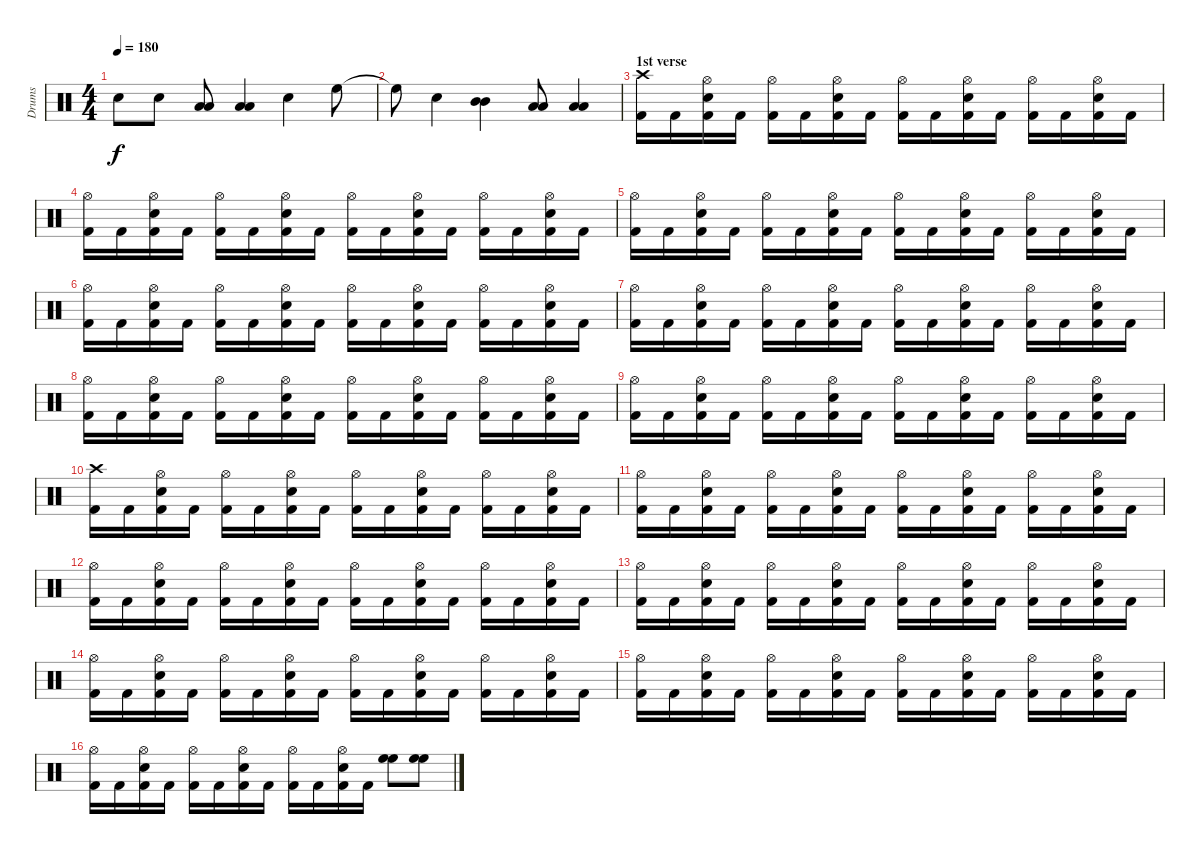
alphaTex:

\track ("Drums" "Drums") {instrument percussion}
\staff {score}
\articulation defaults
\ts (4 4)
\tempo 180
\clef neutral
\ks c "Snare (hit) 2".8{dy f} "Snare (hit) 2".8
("Low Tom (hit)" "Low Tom (hit)").8 ("Low Floor Tom (hit)" "Low Floor Tom (hit)").4 "Snare (hit) 2".4 "High Floor Tom (hit)".8 |
"High Floor Tom (hit)"{t}.8 "Snare (hit) 2".4 ("Mid Tom (hit)" "Mid Tom (hit)").4 ("Low Tom (hit)" "Low Tom (hit)").8 ("Low Floor Tom (hit)" "Low Floor Tom (hit)").4 |
\section ("" "1st verse")
("Crash high (hit)" "Kick (hit) 2").16 "Kick (hit) 2".16 ("Hi-Hat (open)" "Snare (hit) 2" "Kick (hit) 2").16 "Kick (hit) 2".16 ("Hi-Hat (open)" "Kick (hit) 2").16 "Kick (hit) 2".16 ("Hi-Hat (open)" "Snare (hit) 2" "Kick (hit) 2").16 "Kick (hit) 2".16 ("Hi-Hat (open)" "Kick (hit) 2").16 "Kick (hit) 2".16 ("Hi-Hat (open)" "Snare (hit) 2" "Kick (hit) 2").16 "Kick (hit) 2".16 ("Hi-Hat (open)" "Kick (hit) 2").16 "Kick (hit) 2".16 ("Hi-Hat (open)" "Snare (hit) 2" "Kick (hit) 2").16 "Kick (hit) 2".16 |
("Hi-Hat (open)" "Kick (hit) 2").16 "Kick (hit) 2".16 ("Hi-Hat (open)" "Snare (hit) 2" "Kick (hit) 2").16 "Kick (hit) 2".16 ("Hi-Hat (open)" "Kick (hit) 2").16 "Kick (hit) 2".16 ("Hi-Hat (open)" "Snare (hit) 2" "Kick (hit) 2").16 "Kick (hit) 2".16 ("Hi-Hat (open)" "Kick (hit) 2").16 "Kick (hit) 2".16 ("Hi-Hat (open)" "Snare (hit) 2" "Kick (hit) 2").16 "Kick (hit) 2".16 ("Hi-Hat (open)" "Kick (hit) 2").16 "Kick (hit) 2".16 ("Hi-Hat (open)" "Snare (hit) 2" "Kick (hit) 2").16 "Kick (hit) 2".16 |
("Hi-Hat (open)" "Kick (hit) 2").16 "Kick (hit) 2".16 ("Hi-Hat (open)" "Snare (hit) 2" "Kick (hit) 2").16 "Kick (hit) 2".16 ("Hi-Hat (open)" "Kick (hit) 2").16 "Kick (hit) 2".16 ("Hi-Hat (open)" "Snare (hit) 2" "Kick (hit) 2").16 "Kick (hit) 2".16 ("Hi-Hat (open)" "Kick (hit) 2").16 "Kick (hit) 2".16 ("Hi-Hat (open)" "Snare (hit) 2" "Kick (hit) 2").16 "Kick (hit) 2".16 ("Hi-Hat (open)" "Kick (hit) 2").16 "Kick (hit) 2".16 ("Hi-Hat (open)" "Snare (hit) 2" "Kick (hit) 2").16 "Kick (hit) 2".16 |
("Hi-Hat (open)" "Kick (hit) 2").16 "Kick (hit) 2".16 ("Hi-Hat (open)" "Snare (hit) 2" "Kick (hit) 2").16 "Kick (hit) 2".16 ("Hi-Hat (open)" "Kick (hit) 2").16 "Kick (hit) 2".16 ("Hi-Hat (open)" "Snare (hit) 2" "Kick (hit) 2").16 "Kick (hit) 2".16 ("Hi-Hat (open)" "Kick (hit) 2").16 "Kick (hit) 2".16 ("Hi-Hat (open)" "Snare (hit) 2" "Kick (hit) 2").16 "Kick (hit) 2".16 ("Hi-Hat (open)" "Kick (hit) 2").16 "Kick (hit) 2".16 ("Hi-Hat (open)" "Snare (hit) 2" "Kick (hit) 2").16 "Kick (hit) 2".16 |
("Hi-Hat (open)" "Kick (hit) 2").16 "Kick (hit) 2".16 ("Hi-Hat (open)" "Snare (hit) 2" "Kick (hit) 2").16 "Kick (hit) 2".16 ("Hi-Hat (open)" "Kick (hit) 2").16 "Kick (hit) 2".16 ("Hi-Hat (open)" "Snare (hit) 2" "Kick (hit) 2").16 "Kick (hit) 2".16 ("Hi-Hat (open)" "Kick (hit) 2").16 "Kick (hit) 2".16 ("Hi-Hat (open)" "Snare (hit) 2" "Kick (hit) 2").16 "Kick (hit) 2".16 ("Hi-Hat (open)" "Kick (hit) 2").16 "Kick (hit) 2".16 ("Hi-Hat (open)" "Snare (hit) 2" "Kick (hit) 2").16 "Kick (hit) 2".16 |
("Hi-Hat (open)" "Kick (hit) 2").16 "Kick (hit) 2".16 ("Hi-Hat (open)" "Snare (hit) 2" "Kick (hit) 2").16 "Kick (hit) 2".16 ("Hi-Hat (open)" "Kick (hit) 2").16 "Kick (hit) 2".16 ("Hi-Hat (open)" "Snare (hit) 2" "Kick (hit) 2").16 "Kick (hit) 2".16 ("Hi-Hat (open)" "Kick (hit) 2").16 "Kick (hit) 2".16 ("Hi-Hat (open)" "Snare (hit) 2" "Kick (hit) 2").16 "Kick (hit) 2".16 ("Hi-Hat (open)" "Kick (hit) 2").16 "Kick (hit) 2".16 ("Hi-Hat (open)" "Snare (hit) 2" "Kick (hit) 2").16 "Kick (hit) 2".16 |
("Hi-Hat (open)" "Kick (hit) 2").16 "Kick (hit) 2".16 ("Hi-Hat (open)" "Snare (hit) 2" "Kick (hit) 2").16 "Kick (hit) 2".16 ("Hi-Hat (open)" "Kick (hit) 2").16 "Kick (hit) 2".16 ("Hi-Hat (open)" "Snare (hit) 2" "Kick (hit) 2").16 "Kick (hit) 2".16 ("Hi-Hat (open)" "Kick (hit) 2").16 "Kick (hit) 2".16 ("Hi-Hat (open)" "Snare (hit) 2" "Kick (hit) 2").16 "Kick (hit) 2".16 ("Hi-Hat (open)" "Kick (hit) 2").16 "Kick (hit) 2".16 ("Hi-Hat (open)" "Snare (hit) 2" "Kick (hit) 2").16 "Kick (hit) 2".16 |
("Crash high (hit)" "Kick (hit) 2").16 "Kick (hit) 2".16 ("Hi-Hat (open)" "Snare (hit) 2" "Kick (hit) 2").16 "Kick (hit) 2".16 ("Hi-Hat (open)" "Kick (hit) 2").16 "Kick (hit) 2".16 ("Hi-Hat (open)" "Snare (hit) 2" "Kick (hit) 2").16 "Kick (hit) 2".16 ("Hi-Hat (open)" "Kick (hit) 2").16 "Kick (hit) 2".16 ("Hi-Hat (open)" "Snare (hit) 2" "Kick (hit) 2").16 "Kick (hit) 2".16 ("Hi-Hat (open)" "Kick (hit) 2").16 "Kick (hit) 2".16 ("Hi-Hat (open)" "Snare (hit) 2" "Kick (hit) 2").16 "Kick (hit) 2".16 |
("Hi-Hat (open)" "Kick (hit) 2").16 "Kick (hit) 2".16 ("Hi-Hat (open)" "Snare (hit) 2" "Kick (hit) 2").16 "Kick (hit) 2".16 ("Hi-Hat (open)" "Kick (hit) 2").16 "Kick (hit) 2".16 ("Hi-Hat (open)" "Snare (hit) 2" "Kick (hit) 2").16 "Kick (hit) 2".16 ("Hi-Hat (open)" "Kick (hit) 2").16 "Kick (hit) 2".16 ("Hi-Hat (open)" "Snare (hit) 2" "Kick (hit) 2").16 "Kick (hit) 2".16 ("Hi-Hat (open)" "Kick (hit) 2").16 "Kick (hit) 2".16 ("Hi-Hat (open)" "Snare (hit) 2" "Kick (hit) 2").16 "Kick (hit) 2".16 |
("Hi-Hat (open)" "Kick (hit) 2").16 "Kick (hit) 2".16 ("Hi-Hat (open)" "Snare (hit) 2" "Kick (hit) 2").16 "Kick (hit) 2".16 ("Hi-Hat (open)" "Kick (hit) 2").16 "Kick (hit) 2".16 ("Hi-Hat (open)" "Snare (hit) 2" "Kick (hit) 2").16 "Kick (hit) 2".16 ("Hi-Hat (open)" "Kick (hit) 2").16 "Kick (hit) 2".16 ("Hi-Hat (open)" "Snare (hit) 2" "Kick (hit) 2").16 "Kick (hit) 2".16 ("Hi-Hat (open)" "Kick (hit) 2").16 "Kick (hit) 2".16 ("Hi-Hat (open)" "Snare (hit) 2" "Kick (hit) 2").16 "Kick (hit) 2".16 |
("Hi-Hat (open)" "Kick (hit) 2").16 "Kick (hit) 2".16 ("Hi-Hat (open)" "Snare (hit) 2" "Kick (hit) 2").16 "Kick (hit) 2".16 ("Hi-Hat (open)" "Kick (hit) 2").16 "Kick (hit) 2".16 ("Hi-Hat (open)" "Snare (hit) 2" "Kick (hit) 2").16 "Kick (hit) 2".16 ("Hi-Hat (open)" "Kick (hit) 2").16 "Kick (hit) 2".16 ("Hi-Hat (open)" "Snare (hit) 2" "Kick (hit) 2").16 "Kick (hit) 2".16 ("Hi-Hat (open)" "Kick (hit) 2").16 "Kick (hit) 2".16 ("Hi-Hat (open)" "Snare (hit) 2" "Kick (hit) 2").16 "Kick (hit) 2".16 |
("Hi-Hat (open)" "Kick (hit) 2").16 "Kick (hit) 2".16 ("Hi-Hat (open)" "Snare (hit) 2" "Kick (hit) 2").16 "Kick (hit) 2".16 ("Hi-Hat (open)" "Kick (hit) 2").16 "Kick (hit) 2".16 ("Hi-Hat (open)" "Snare (hit) 2" "Kick (hit) 2").16 "Kick (hit) 2".16 ("Hi-Hat (open)" "Kick (hit) 2").16 "Kick (hit) 2".16 ("Hi-Hat (open)" "Snare (hit) 2" "Kick (hit) 2").16 "Kick (hit) 2".16 ("Hi-Hat (open)" "Kick (hit) 2").16 "Kick (hit) 2".16 ("Hi-Hat (open)" "Snare (hit) 2" "Kick (hit) 2").16 "Kick (hit) 2".16 |
("Hi-Hat (open)" "Kick (hit) 2").16 "Kick (hit) 2".16 ("Hi-Hat (open)" "Snare (hit) 2" "Kick (hit) 2").16 "Kick (hit) 2".16 ("Hi-Hat (open)" "Kick (hit) 2").16 "Kick (hit) 2".16 ("Hi-Hat (open)" "Snare (hit) 2" "Kick (hit) 2").16 "Kick (hit) 2".16 ("Hi-Hat (open)" "Kick (hit) 2").16 "Kick (hit) 2".16 ("Hi-Hat (open)" "Snare (hit) 2" "Kick (hit) 2").16 "Kick (hit) 2".16 ("Hi-Hat (open)" "Kick (hit) 2").16 "Kick (hit) 2".16 ("Hi-Hat (open)" "Snare (hit) 2" "Kick (hit) 2").16 "Kick (hit) 2".16 |
("Hi-Hat (open)" "Kick (hit) 2").16 "Kick (hit) 2".16 ("Hi-Hat (open)" "Snare (hit) 2" "Kick (hit) 2").16 "Kick (hit) 2".16 ("Hi-Hat (open)" "Kick (hit) 2").16 "Kick (hit) 2".16 ("Hi-Hat (open)" "Snare (hit) 2" "Kick (hit) 2").16 "Kick (hit) 2".16 ("Hi-Hat (open)" "Kick (hit) 2").16 "Kick (hit) 2".16 ("Hi-Hat (open)" "Snare (hit) 2" "Kick (hit) 2").16 "Kick (hit) 2".16 ("High Floor Tom (hit)" "High Floor Tom (hit)").8 ("High Floor Tom (hit)" "High Floor Tom (hit)").8
